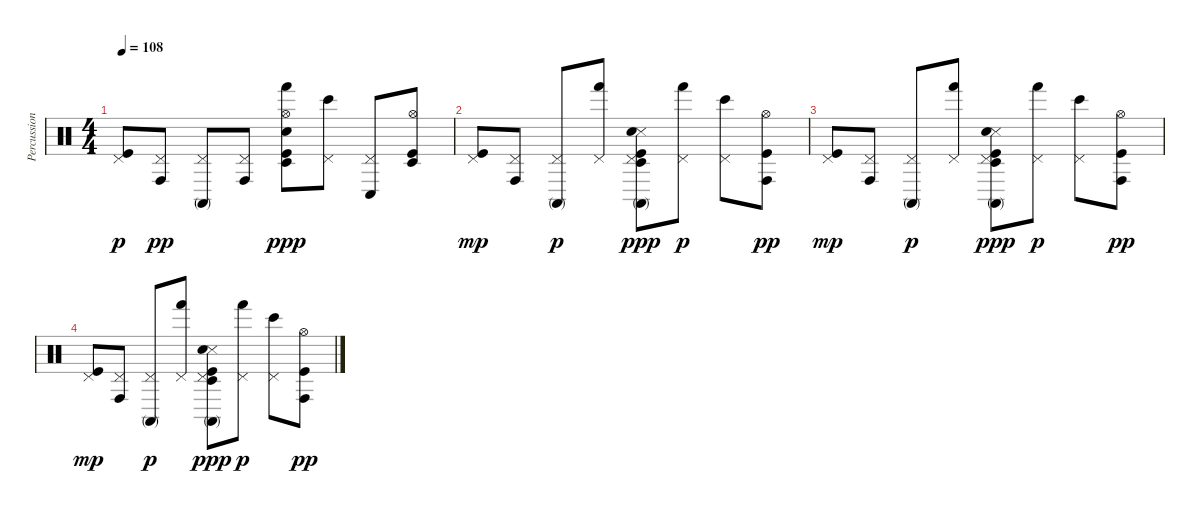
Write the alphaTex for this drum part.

\track ("Percussions" "Percussion") {instrument percussion}
\staff {score}
\articulation defaults
\ts (4 4)
\tempo 108
\clef neutral
\ks c
("Pedal Hi-Hat (hit)" "Kick (hit)").8{dy p} ("Pedal Hi-Hat (hit)" "Conga high (hit)").8{dy pp} ("Pedal Hi-Hat (hit)" "Conga high (mute)").8 ("Pedal Hi-Hat (hit)" "Conga high (hit)").8 ("Hi-Hat (open)" "Hand (hit)" "Kick (hit)" "Snare (hit) 2" "Timbale low (hit)").8{dy ppp} ("Pedal Hi-Hat (hit)" "Bongo High (hit)").8 ("Pedal Hi-Hat (hit)" "Conga low (hit)").8 ("Hi-Hat (open)" "Kick (hit)" "Timbale low (hit)").8 |
("Pedal Hi-Hat (hit)" "Kick (hit)").8{dy mp} ("Pedal Hi-Hat (hit)" "Conga high (hit)").8 ("Pedal Hi-Hat (hit)" "Conga high (mute)").8{dy p} ("Pedal Hi-Hat (hit)" "Hand (hit)").8 ("Pedal Hi-Hat (hit)" "Conga high (mute)" "Snare (side stick) 3" "Kick (hit)" "Snare (hit) 2" "Timbale low (hit)").8{dy ppp} ("Pedal Hi-Hat (hit)" "Hand (hit)").8{dy p} ("Pedal Hi-Hat (hit)" "Bongo High (hit)").8 ("Hi-Hat (open)" "Conga high (hit)" "Kick (hit)").8{dy pp} |
("Pedal Hi-Hat (hit)" "Kick (hit)").8{dy mp} ("Pedal Hi-Hat (hit)" "Conga high (hit)").8 ("Pedal Hi-Hat (hit)" "Conga high (mute)").8{dy p} ("Pedal Hi-Hat (hit)" "Hand (hit)").8 ("Pedal Hi-Hat (hit)" "Conga high (mute)" "Snare (side stick) 3" "Kick (hit)" "Snare (hit) 2" "Timbale low (hit)").8{dy ppp} ("Pedal Hi-Hat (hit)" "Hand (hit)").8{dy p} ("Pedal Hi-Hat (hit)" "Bongo High (hit)").8 ("Hi-Hat (open)" "Conga high (hit)" "Kick (hit)").8{dy pp} |
("Pedal Hi-Hat (hit)" "Kick (hit)").8{dy mp volume 0} ("Pedal Hi-Hat (hit)" "Conga high (hit)").8 ("Pedal Hi-Hat (hit)" "Conga high (mute)").8{dy p} ("Pedal Hi-Hat (hit)" "Hand (hit)").8 ("Pedal Hi-Hat (hit)" "Conga high (mute)" "Snare (side stick) 3" "Kick (hit)" "Snare (hit) 2" "Timbale low (hit)").8{dy ppp} ("Pedal Hi-Hat (hit)" "Hand (hit)").8{dy p} ("Pedal Hi-Hat (hit)" "Bongo High (hit)").8 ("Hi-Hat (open)" "Conga high (hit)" "Kick (hit)").8{dy pp}
